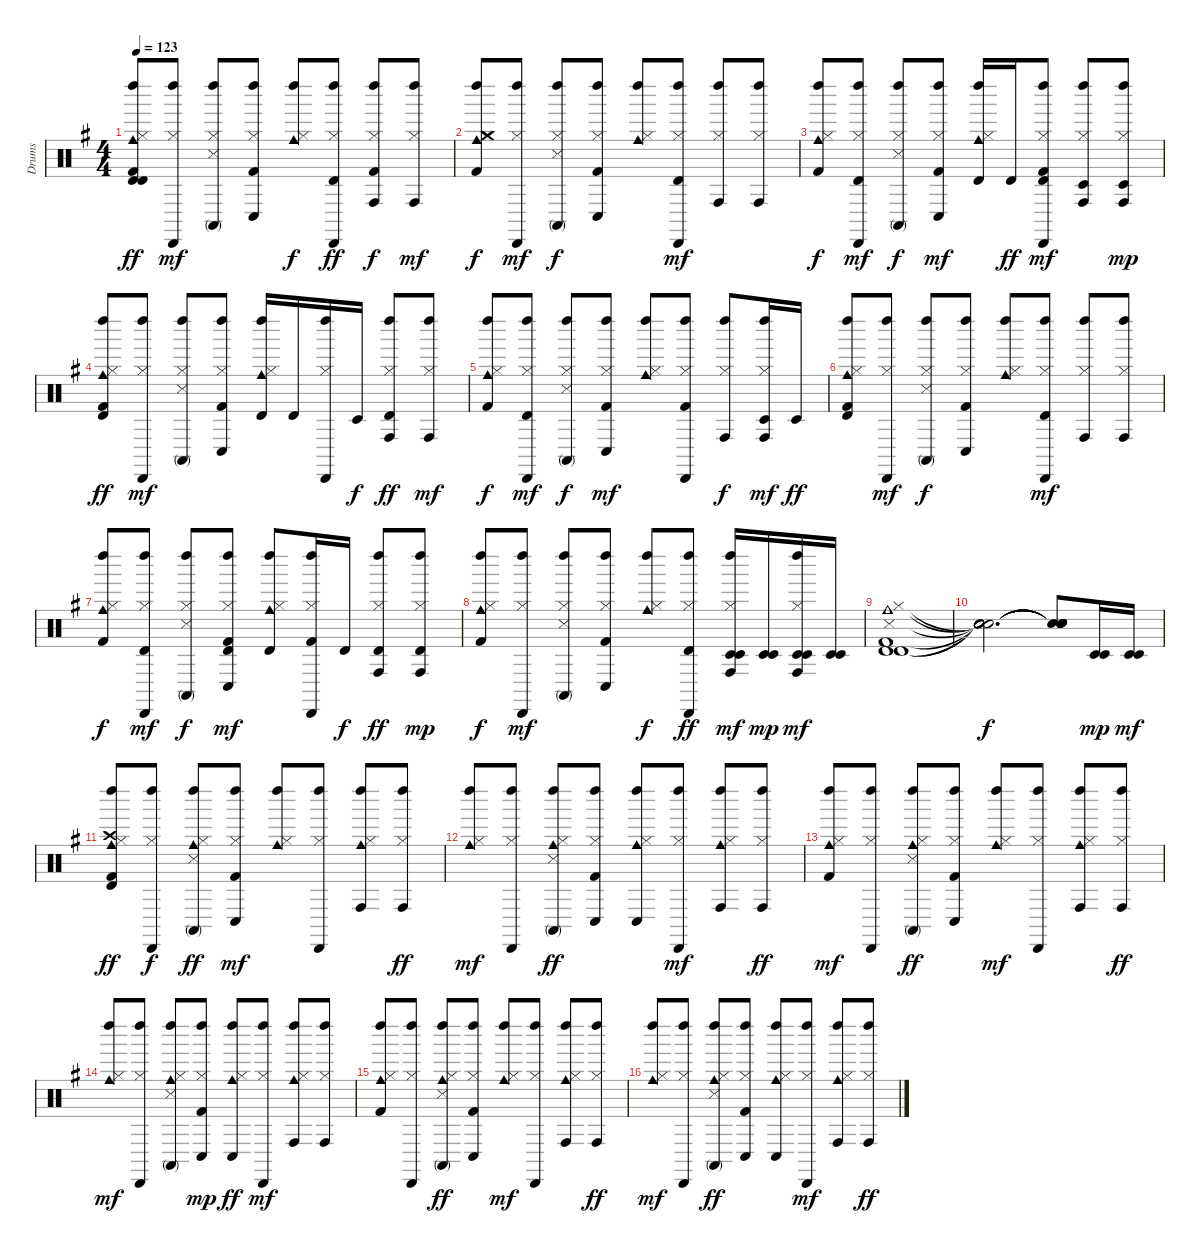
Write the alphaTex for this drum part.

\track ("Drums" "Drums") {instrument percussion}
\staff {score}
\articulation defaults
\ts (4 4)
\tempo 123
\clef neutral
\ks g
("Kick (hit) 2" "Hi-Hat (closed)" "Cowbell medium (hit)" "Timbale high (hit)" "Timbale high (hit)" "Left Maraca (hit)").8{dy ff} ("Hi-Hat (closed)" "Cabasa (hit)" "Left Maraca (hit)").8{dy mf} ("Snare (side stick) 3" "Hi-Hat (closed)" "Conga high (mute)" "Left Maraca (hit)").8 ("Kick (hit) 2" "Hi-Hat (closed)" "Conga low (hit)" "Left Maraca (hit)").8 ("Hi-Hat (closed)" "Cowbell medium (hit)" "Left Maraca (hit)").8{dy f} ("Hi-Hat (closed)" "Timbale high (hit)" "Cabasa (hit)" "Left Maraca (hit)").8{dy ff} ("Kick (hit) 2" "Hi-Hat (closed)" "Conga high (hit)" "Left Maraca (hit)").8{dy f} ("Hi-Hat (closed)" "Conga high (hit)" "Left Maraca (hit)").8{dy mf} |
("Kick (hit) 2" "Hi-Hat (closed)" "Cowbell medium (hit)" "Crash medium (hit)" "Left Maraca (hit)").8{dy f} ("Hi-Hat (closed)" "Cabasa (hit)" "Left Maraca (hit)").8{dy mf} ("Snare (side stick) 3" "Hi-Hat (closed)" "Conga high (mute)" "Left Maraca (hit)").8{dy f} ("Kick (hit) 2" "Hi-Hat (closed)" "Conga low (hit)" "Left Maraca (hit)").8 ("Hi-Hat (closed)" "Cowbell medium (hit)" "Left Maraca (hit)").8 ("Hi-Hat (closed)" "Timbale high (hit)" "Cabasa (hit)" "Left Maraca (hit)").8{dy mf} ("Hi-Hat (closed)" "Conga high (hit)" "Left Maraca (hit)").8 ("Hi-Hat (closed)" "Conga high (hit)" "Left Maraca (hit)").8 |
("Kick (hit) 2" "Hi-Hat (closed)" "Cowbell medium (hit)" "Left Maraca (hit)").8{dy f} ("Hi-Hat (closed)" "Timbale high (hit)" "Cabasa (hit)" "Left Maraca (hit)").8{dy mf} ("Snare (side stick) 3" "Hi-Hat (closed)" "Conga high (mute)" "Left Maraca (hit)").8{dy f} ("Kick (hit) 2" "Hi-Hat (closed)" "Conga low (hit)" "Left Maraca (hit)").8{dy mf} ("Hi-Hat (closed)" "Cowbell medium (hit)" "Timbale high (hit)" "Left Maraca (hit)").16 "Timbale high (hit)".16{dy ff} ("Kick (hit) 2" "Hi-Hat (closed)" "Timbale high (hit)" "Cabasa (hit)" "Left Maraca (hit)").8{dy mf} ("Hi-Hat (closed)" "Conga high (hit)" "Timbale low (hit)" "Left Maraca (hit)").8 ("Hi-Hat (closed)" "Conga high (hit)" "Timbale low (hit)" "Left Maraca (hit)").8{dy mp} |
("Kick (hit) 2" "Hi-Hat (closed)" "Cowbell medium (hit)" "Timbale high (hit)" "Left Maraca (hit)").8{dy ff} ("Hi-Hat (closed)" "Cabasa (hit)" "Left Maraca (hit)").8{dy mf} ("Snare (side stick) 3" "Hi-Hat (closed)" "Conga high (mute)" "Left Maraca (hit)").8 ("Kick (hit) 2" "Hi-Hat (closed)" "Conga low (hit)" "Left Maraca (hit)").8 ("Hi-Hat (closed)" "Cowbell medium (hit)" "Timbale high (hit)" "Left Maraca (hit)").16 "Timbale high (hit)".16 ("Hi-Hat (closed)" "Cabasa (hit)" "Left Maraca (hit)").16 "Timbale low (hit)".16{dy f} ("Hi-Hat (closed)" "Conga high (hit)" "Timbale high (hit)" "Left Maraca (hit)").8{dy ff} ("Hi-Hat (closed)" "Conga high (hit)" "Left Maraca (hit)").8{dy mf} |
("Kick (hit) 2" "Hi-Hat (closed)" "Cowbell medium (hit)" "Left Maraca (hit)").8{dy f} ("Hi-Hat (closed)" "Timbale high (hit)" "Cabasa (hit)" "Left Maraca (hit)").8{dy mf} ("Snare (side stick) 3" "Hi-Hat (closed)" "Conga high (mute)" "Left Maraca (hit)").8{dy f} ("Kick (hit) 2" "Hi-Hat (closed)" "Conga low (hit)" "Left Maraca (hit)").8{dy mf} ("Hi-Hat (closed)" "Cowbell medium (hit)" "Left Maraca (hit)").8 ("Kick (hit) 2" "Hi-Hat (closed)" "Cabasa (hit)" "Left Maraca (hit)").8 ("Hi-Hat (closed)" "Conga high (hit)" "Left Maraca (hit)").8{dy f} ("Hi-Hat (closed)" "Conga high (hit)" "Timbale low (hit)" "Left Maraca (hit)").16{dy mf} "Timbale low (hit)".16{dy ff} |
("Kick (hit) 2" "Hi-Hat (closed)" "Cowbell medium (hit)" "Timbale high (hit)" "Left Maraca (hit)").8 ("Hi-Hat (closed)" "Cabasa (hit)" "Left Maraca (hit)").8{dy mf} ("Snare (side stick) 3" "Hi-Hat (closed)" "Conga high (mute)" "Left Maraca (hit)").8{dy f} ("Kick (hit) 2" "Hi-Hat (closed)" "Conga low (hit)" "Left Maraca (hit)").8 ("Hi-Hat (closed)" "Cowbell medium (hit)" "Left Maraca (hit)").8 ("Hi-Hat (closed)" "Timbale high (hit)" "Cabasa (hit)" "Left Maraca (hit)").8{dy mf} ("Hi-Hat (closed)" "Conga high (hit)" "Left Maraca (hit)").8 ("Hi-Hat (closed)" "Conga high (hit)" "Left Maraca (hit)").8 |
("Kick (hit) 2" "Hi-Hat (closed)" "Cowbell medium (hit)" "Left Maraca (hit)").8{dy f} ("Hi-Hat (closed)" "Timbale high (hit)" "Cabasa (hit)" "Left Maraca (hit)").8{dy mf} ("Snare (side stick) 3" "Hi-Hat (closed)" "Conga high (mute)" "Left Maraca (hit)").8{dy f} ("Kick (hit) 2" "Hi-Hat (closed)" "Conga low (hit)" "Timbale high (hit)" "Left Maraca (hit)").8{dy mf} ("Hi-Hat (closed)" "Cowbell medium (hit)" "Timbale high (hit)" "Left Maraca (hit)").8 ("Kick (hit) 2" "Hi-Hat (closed)" "Cabasa (hit)" "Left Maraca (hit)").16 "Timbale high (hit)".16{dy f} ("Hi-Hat (closed)" "Conga high (hit)" "Timbale high (hit)" "Left Maraca (hit)").8{dy ff} ("Hi-Hat (closed)" "Conga high (hit)" "Timbale high (hit)" "Left Maraca (hit)").8{dy mp} |
("Kick (hit) 2" "Hi-Hat (closed)" "Cowbell medium (hit)" "Left Maraca (hit)").8{dy f} ("Hi-Hat (closed)" "Cabasa (hit)" "Left Maraca (hit)").8{dy mf} ("Snare (side stick) 3" "Hi-Hat (closed)" "Conga high (mute)" "Left Maraca (hit)").8 ("Kick (hit) 2" "Hi-Hat (closed)" "Conga low (hit)" "Left Maraca (hit)").8 ("Hi-Hat (closed)" "Cowbell medium (hit)" "Left Maraca (hit)").8{dy f} ("Hi-Hat (closed)" "Timbale high (hit)" "Cabasa (hit)" "Left Maraca (hit)").8{dy ff} ("Hi-Hat (closed)" "Conga high (hit)" "Timbale low (hit)" "Timbale low (hit)" "Left Maraca (hit)").16{dy mf} ("Timbale low (hit)" "Timbale low (hit)").16{dy mp} ("Hi-Hat (closed)" "Conga high (hit)" "Timbale low (hit)" "Timbale low (hit)" "Left Maraca (hit)").16{dy mf} ("Timbale low (hit)" "Timbale low (hit)").16 |
("Kick (hit) 2" "Snare (side stick) 3" "Hi-Hat (closed)" "Cowbell medium (hit)" "Timbale high (hit)" "Timbale high (hit)").1 |
("Snare (hit)"{t} "Snare (hit)"{t} "Snare (hit)"{t} "Snare (hit)"{t} "Snare (hit)"{t} "Snare (hit)"{t}).2{d dy f} ("Snare (hit)"{t} "Snare (hit)"{t} "Snare (hit)"{t} "Snare (hit)"{t} "Snare (hit)"{t} "Snare (hit)"{t}).8 ("Timbale low (hit)" "Timbale low (hit)").16{dy mp} ("Timbale low (hit)" "Timbale low (hit)").16{dy mf} |
("Kick (hit) 2" "Hi-Hat (closed)" "Crash high (hit)" "Cowbell medium (hit)" "Timbale high (hit)" "Left Maraca (hit)").8{dy ff} ("Hi-Hat (closed)" "Cabasa (hit)" "Left Maraca (hit)").8{dy f} ("Snare (side stick) 3" "Hi-Hat (closed)" "Cowbell medium (hit)" "Conga high (mute)" "Left Maraca (hit)").8{dy ff} ("Kick (hit) 2" "Hi-Hat (closed)" "Conga low (hit)" "Left Maraca (hit)").8{dy mf} ("Hi-Hat (closed)" "Cowbell medium (hit)" "Left Maraca (hit)").8 ("Hi-Hat (closed)" "Cabasa (hit)" "Left Maraca (hit)").8 ("Hi-Hat (closed)" "Cowbell medium (hit)" "Conga high (hit)" "Left Maraca (hit)").8 ("Hi-Hat (closed)" "Conga high (hit)" "Left Maraca (hit)").8{dy ff} |
("Hi-Hat (closed)" "Cowbell medium (hit)" "Left Maraca (hit)").8{dy mf} ("Hi-Hat (closed)" "Cabasa (hit)" "Left Maraca (hit)").8 ("Snare (side stick) 3" "Hi-Hat (closed)" "Cowbell medium (hit)" "Conga high (mute)" "Left Maraca (hit)").8{dy ff} ("Kick (hit) 2" "Hi-Hat (closed)" "Conga low (hit)" "Left Maraca (hit)").8 ("Hi-Hat (closed)" "Cowbell medium (hit)" "Conga low (hit)" "Left Maraca (hit)").8 ("Hi-Hat (closed)" "Cabasa (hit)" "Left Maraca (hit)").8{dy mf} ("Hi-Hat (closed)" "Cowbell medium (hit)" "Conga high (hit)" "Left Maraca (hit)").8 ("Hi-Hat (closed)" "Conga high (hit)" "Left Maraca (hit)").8{dy ff} |
("Kick (hit) 2" "Hi-Hat (closed)" "Cowbell medium (hit)" "Left Maraca (hit)").8{dy mf} ("Hi-Hat (closed)" "Cabasa (hit)" "Left Maraca (hit)").8 ("Snare (side stick) 3" "Hi-Hat (closed)" "Cowbell medium (hit)" "Conga high (mute)" "Left Maraca (hit)").8{dy ff} ("Kick (hit) 2" "Hi-Hat (closed)" "Conga low (hit)" "Left Maraca (hit)").8 ("Hi-Hat (closed)" "Cowbell medium (hit)" "Left Maraca (hit)").8{dy mf} ("Hi-Hat (closed)" "Cabasa (hit)" "Left Maraca (hit)").8 ("Hi-Hat (closed)" "Cowbell medium (hit)" "Conga high (hit)" "Left Maraca (hit)").8 ("Hi-Hat (closed)" "Conga high (hit)" "Left Maraca (hit)").8{dy ff} |
("Hi-Hat (closed)" "Cowbell medium (hit)" "Left Maraca (hit)").8{dy mf} ("Hi-Hat (closed)" "Cabasa (hit)" "Left Maraca (hit)").8 ("Snare (side stick) 3" "Hi-Hat (closed)" "Cowbell medium (hit)" "Conga high (mute)" "Left Maraca (hit)").8 ("Kick (hit) 2" "Hi-Hat (closed)" "Conga low (hit)" "Left Maraca (hit)").8{dy mp} ("Hi-Hat (closed)" "Cowbell medium (hit)" "Conga low (hit)" "Left Maraca (hit)").8{dy ff} ("Hi-Hat (closed)" "Cabasa (hit)" "Left Maraca (hit)").8{dy mf} ("Hi-Hat (closed)" "Cowbell medium (hit)" "Conga high (hit)" "Left Maraca (hit)").8 ("Hi-Hat (closed)" "Conga high (hit)" "Left Maraca (hit)").8 |
("Kick (hit) 2" "Hi-Hat (closed)" "Cowbell medium (hit)" "Left Maraca (hit)").8 ("Hi-Hat (closed)" "Cabasa (hit)" "Left Maraca (hit)").8 ("Snare (side stick) 3" "Hi-Hat (closed)" "Cowbell medium (hit)" "Conga high (mute)" "Left Maraca (hit)").8{dy ff} ("Kick (hit) 2" "Hi-Hat (closed)" "Conga low (hit)" "Left Maraca (hit)").8 ("Hi-Hat (closed)" "Cowbell medium (hit)" "Left Maraca (hit)").8{dy mf} ("Hi-Hat (closed)" "Cabasa (hit)" "Left Maraca (hit)").8 ("Hi-Hat (closed)" "Cowbell medium (hit)" "Conga high (hit)" "Left Maraca (hit)").8 ("Hi-Hat (closed)" "Conga high (hit)" "Left Maraca (hit)").8{dy ff} |
("Hi-Hat (closed)" "Cowbell medium (hit)" "Left Maraca (hit)").8{dy mf} ("Hi-Hat (closed)" "Cabasa (hit)" "Left Maraca (hit)").8 ("Snare (side stick) 3" "Hi-Hat (closed)" "Cowbell medium (hit)" "Conga high (mute)" "Left Maraca (hit)").8{dy ff} ("Kick (hit) 2" "Hi-Hat (closed)" "Conga low (hit)" "Left Maraca (hit)").8 ("Hi-Hat (closed)" "Cowbell medium (hit)" "Conga low (hit)" "Left Maraca (hit)").8 ("Hi-Hat (closed)" "Cabasa (hit)" "Left Maraca (hit)").8{dy mf} ("Hi-Hat (closed)" "Cowbell medium (hit)" "Conga high (hit)" "Left Maraca (hit)").8 ("Hi-Hat (closed)" "Conga high (hit)" "Left Maraca (hit)").8{dy ff}
